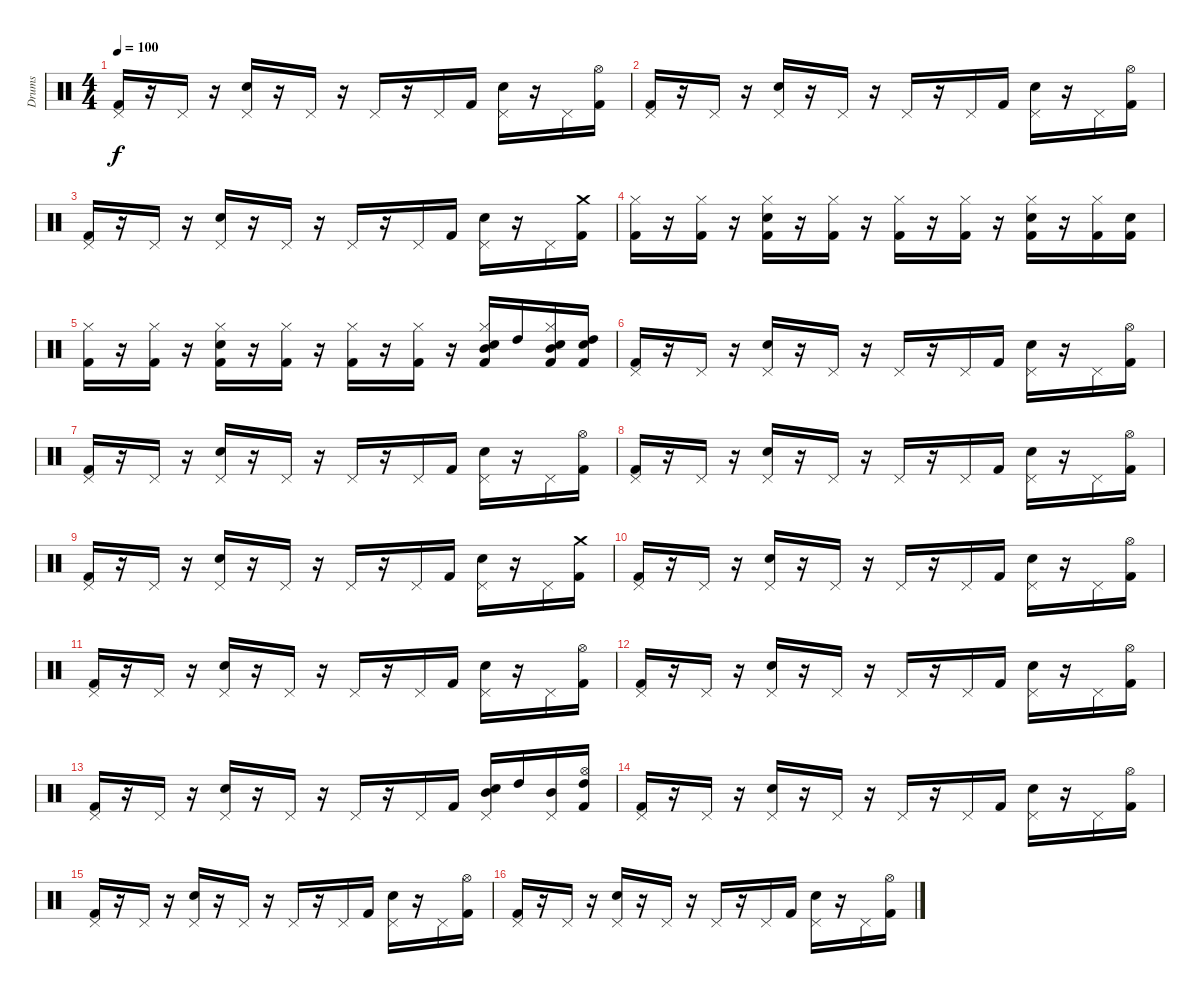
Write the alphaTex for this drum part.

\track ("Drums" "Drums") {instrument percussion}
\staff {score}
\articulation defaults
\ts (4 4)
\tempo 100
\clef neutral
\ks c
("Pedal Hi-Hat (hit)" "Kick (hit) 2").16{dy f} r.16 "Pedal Hi-Hat (hit)".16 r.16 ("Pedal Hi-Hat (hit)" "Snare (hit) 2").16 r.16 "Pedal Hi-Hat (hit)".16 r.16 "Pedal Hi-Hat (hit)".16 r.16 "Pedal Hi-Hat (hit)".16 "Kick (hit) 2".16 ("Pedal Hi-Hat (hit)" "Snare (hit) 2").16 r.16 "Pedal Hi-Hat (hit)".16 ("Hi-Hat (open)" "Kick (hit) 2").16 |
("Pedal Hi-Hat (hit)" "Kick (hit) 2").16 r.16 "Pedal Hi-Hat (hit)".16 r.16 ("Pedal Hi-Hat (hit)" "Snare (hit) 2").16 r.16 "Pedal Hi-Hat (hit)".16 r.16 "Pedal Hi-Hat (hit)".16 r.16 "Pedal Hi-Hat (hit)".16 "Kick (hit) 2".16 ("Pedal Hi-Hat (hit)" "Snare (hit) 2").16 r.16 "Pedal Hi-Hat (hit)".16 ("Hi-Hat (open)" "Kick (hit) 2").16 |
("Pedal Hi-Hat (hit)" "Kick (hit) 2").16 r.16 "Pedal Hi-Hat (hit)".16 r.16 ("Pedal Hi-Hat (hit)" "Snare (hit) 2").16 r.16 "Pedal Hi-Hat (hit)".16 r.16 "Pedal Hi-Hat (hit)".16 r.16 "Pedal Hi-Hat (hit)".16 "Kick (hit) 2".16 ("Pedal Hi-Hat (hit)" "Snare (hit) 2").16 r.16 "Pedal Hi-Hat (hit)".16 ("Crash medium (hit)" "Kick (hit) 2").16 |
("Hi-Hat (closed)" "Kick (hit) 2").16 r.16 ("Hi-Hat (closed)" "Kick (hit) 2").16 r.16 ("Hi-Hat (closed)" "Snare (hit) 2" "Kick (hit) 2").16 r.16 ("Hi-Hat (closed)" "Kick (hit) 2").16 r.16 ("Hi-Hat (closed)" "Kick (hit) 2").16 r.16 ("Hi-Hat (closed)" "Kick (hit) 2").16 r.16 ("Hi-Hat (closed)" "Snare (hit) 2" "Kick (hit) 2").16 r.16 ("Hi-Hat (closed)" "Kick (hit) 2").16 ("Snare (hit) 2" "Kick (hit) 2").16 |
("Hi-Hat (closed)" "Kick (hit) 2").16 r.16 ("Hi-Hat (closed)" "Kick (hit) 2").16 r.16 ("Hi-Hat (closed)" "Snare (hit) 2" "Kick (hit) 2").16 r.16 ("Hi-Hat (closed)" "Kick (hit) 2").16 r.16 ("Hi-Hat (closed)" "Kick (hit) 2").16 r.16 ("Hi-Hat (closed)" "Kick (hit) 2").16 r.16 ("Hi-Hat (closed)" "Mid Tom (hit)" "Snare (hit) 2" "Kick (hit) 2").16 "High Tom (hit)".16 ("Hi-Hat (closed)" "Mid Tom (hit)" "Snare (hit) 2" "Kick (hit) 2").16 ("High Tom (hit)" "Snare (hit) 2" "Kick (hit) 2").16 |
("Pedal Hi-Hat (hit)" "Kick (hit) 2").16 r.16 "Pedal Hi-Hat (hit)".16 r.16 ("Pedal Hi-Hat (hit)" "Snare (hit) 2").16 r.16 "Pedal Hi-Hat (hit)".16 r.16 "Pedal Hi-Hat (hit)".16 r.16 "Pedal Hi-Hat (hit)".16 "Kick (hit) 2".16 ("Pedal Hi-Hat (hit)" "Snare (hit) 2").16 r.16 "Pedal Hi-Hat (hit)".16 ("Hi-Hat (open)" "Kick (hit) 2").16 |
("Pedal Hi-Hat (hit)" "Kick (hit) 2").16 r.16 "Pedal Hi-Hat (hit)".16 r.16 ("Pedal Hi-Hat (hit)" "Snare (hit) 2").16 r.16 "Pedal Hi-Hat (hit)".16 r.16 "Pedal Hi-Hat (hit)".16 r.16 "Pedal Hi-Hat (hit)".16 "Kick (hit) 2".16 ("Pedal Hi-Hat (hit)" "Snare (hit) 2").16 r.16 "Pedal Hi-Hat (hit)".16 ("Hi-Hat (open)" "Kick (hit) 2").16 |
("Pedal Hi-Hat (hit)" "Kick (hit) 2").16 r.16 "Pedal Hi-Hat (hit)".16 r.16 ("Pedal Hi-Hat (hit)" "Snare (hit) 2").16 r.16 "Pedal Hi-Hat (hit)".16 r.16 "Pedal Hi-Hat (hit)".16 r.16 "Pedal Hi-Hat (hit)".16 "Kick (hit) 2".16 ("Pedal Hi-Hat (hit)" "Snare (hit) 2").16 r.16 "Pedal Hi-Hat (hit)".16 ("Hi-Hat (open)" "Kick (hit) 2").16 |
("Pedal Hi-Hat (hit)" "Kick (hit) 2").16 r.16 "Pedal Hi-Hat (hit)".16 r.16 ("Pedal Hi-Hat (hit)" "Snare (hit) 2").16 r.16 "Pedal Hi-Hat (hit)".16 r.16 "Pedal Hi-Hat (hit)".16 r.16 "Pedal Hi-Hat (hit)".16 "Kick (hit) 2".16 ("Pedal Hi-Hat (hit)" "Snare (hit) 2").16 r.16 "Pedal Hi-Hat (hit)".16 ("Crash medium (hit)" "Kick (hit) 2").16 |
("Pedal Hi-Hat (hit)" "Kick (hit) 2").16 r.16 "Pedal Hi-Hat (hit)".16 r.16 ("Pedal Hi-Hat (hit)" "Snare (hit) 2").16 r.16 "Pedal Hi-Hat (hit)".16 r.16 "Pedal Hi-Hat (hit)".16 r.16 "Pedal Hi-Hat (hit)".16 "Kick (hit) 2".16 ("Pedal Hi-Hat (hit)" "Snare (hit) 2").16 r.16 "Pedal Hi-Hat (hit)".16 ("Hi-Hat (open)" "Kick (hit) 2").16 |
("Pedal Hi-Hat (hit)" "Kick (hit) 2").16 r.16 "Pedal Hi-Hat (hit)".16 r.16 ("Pedal Hi-Hat (hit)" "Snare (hit) 2").16 r.16 "Pedal Hi-Hat (hit)".16 r.16 "Pedal Hi-Hat (hit)".16 r.16 "Pedal Hi-Hat (hit)".16 "Kick (hit) 2".16 ("Pedal Hi-Hat (hit)" "Snare (hit) 2").16 r.16 "Pedal Hi-Hat (hit)".16 ("Hi-Hat (open)" "Kick (hit) 2").16 |
("Pedal Hi-Hat (hit)" "Kick (hit) 2").16 r.16 "Pedal Hi-Hat (hit)".16 r.16 ("Pedal Hi-Hat (hit)" "Snare (hit) 2").16 r.16 "Pedal Hi-Hat (hit)".16 r.16 "Pedal Hi-Hat (hit)".16 r.16 "Pedal Hi-Hat (hit)".16 "Kick (hit) 2".16 ("Pedal Hi-Hat (hit)" "Snare (hit) 2").16 r.16 "Pedal Hi-Hat (hit)".16 ("Hi-Hat (open)" "Kick (hit) 2").16 |
("Pedal Hi-Hat (hit)" "Kick (hit) 2").16 r.16 "Pedal Hi-Hat (hit)".16 r.16 ("Pedal Hi-Hat (hit)" "Snare (hit) 2").16 r.16 "Pedal Hi-Hat (hit)".16 r.16 "Pedal Hi-Hat (hit)".16 r.16 "Pedal Hi-Hat (hit)".16 "Kick (hit) 2".16 ("Pedal Hi-Hat (hit)" "Mid Tom (hit)" "Snare (hit) 2").16 "High Tom (hit)".16 ("Pedal Hi-Hat (hit)" "Mid Tom (hit)").16 ("Hi-Hat (open)" "Kick (hit) 2" "High Tom (hit)").16 |
("Pedal Hi-Hat (hit)" "Kick (hit) 2").16 r.16 "Pedal Hi-Hat (hit)".16 r.16 ("Pedal Hi-Hat (hit)" "Snare (hit) 2").16 r.16 "Pedal Hi-Hat (hit)".16 r.16 "Pedal Hi-Hat (hit)".16 r.16 "Pedal Hi-Hat (hit)".16 "Kick (hit) 2".16 ("Pedal Hi-Hat (hit)" "Snare (hit) 2").16 r.16 "Pedal Hi-Hat (hit)".16 ("Hi-Hat (open)" "Kick (hit) 2").16 |
("Pedal Hi-Hat (hit)" "Kick (hit) 2").16 r.16 "Pedal Hi-Hat (hit)".16 r.16 ("Pedal Hi-Hat (hit)" "Snare (hit) 2").16 r.16 "Pedal Hi-Hat (hit)".16 r.16 "Pedal Hi-Hat (hit)".16 r.16 "Pedal Hi-Hat (hit)".16 "Kick (hit) 2".16 ("Pedal Hi-Hat (hit)" "Snare (hit) 2").16 r.16 "Pedal Hi-Hat (hit)".16 ("Hi-Hat (open)" "Kick (hit) 2").16 |
("Pedal Hi-Hat (hit)" "Kick (hit) 2").16 r.16 "Pedal Hi-Hat (hit)".16 r.16 ("Pedal Hi-Hat (hit)" "Snare (hit) 2").16 r.16 "Pedal Hi-Hat (hit)".16 r.16 "Pedal Hi-Hat (hit)".16 r.16 "Pedal Hi-Hat (hit)".16 "Kick (hit) 2".16 ("Pedal Hi-Hat (hit)" "Snare (hit) 2").16 r.16 "Pedal Hi-Hat (hit)".16 ("Hi-Hat (open)" "Kick (hit) 2").16
